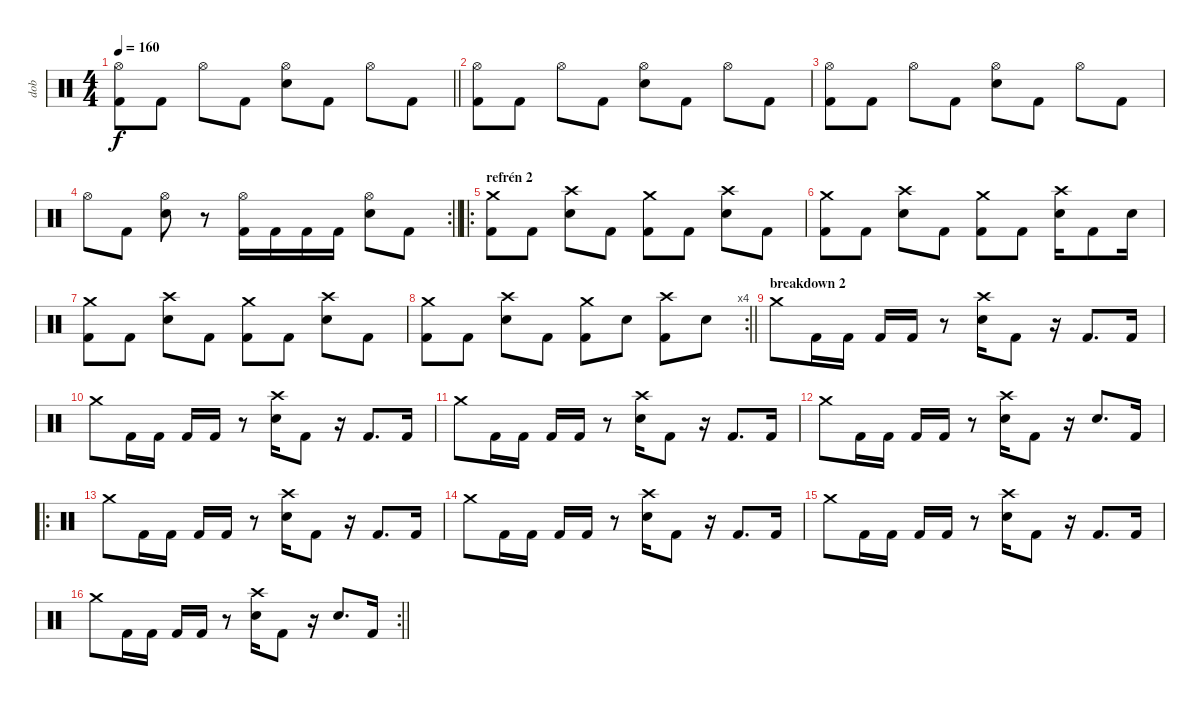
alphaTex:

\track ("dob" "dob") {instrument percussion}
\staff {score}
\articulation defaults
\ts (4 4)
\tempo 160
\clef neutral
\barLineRight lightlight
\ks c
("Hi-Hat (open)" "Kick (hit) 2").8{dy f} "Kick (hit) 2".8 "Hi-Hat (open)".8 "Kick (hit) 2".8 ("Hi-Hat (open)" "Snare (hit) 2").8 "Kick (hit) 2".8 "Hi-Hat (open)".8 "Kick (hit) 2".8 |
("Hi-Hat (open)" "Kick (hit) 2").8 "Kick (hit) 2".8 "Hi-Hat (open)".8 "Kick (hit) 2".8 ("Hi-Hat (open)" "Snare (hit) 2").8 "Kick (hit) 2".8 "Hi-Hat (open)".8 "Kick (hit) 2".8 |
("Hi-Hat (open)" "Kick (hit) 2").8 "Kick (hit) 2".8 "Hi-Hat (open)".8 "Kick (hit) 2".8 ("Hi-Hat (open)" "Snare (hit) 2").8 "Kick (hit) 2".8 "Hi-Hat (open)".8 "Kick (hit) 2".8 |
\rc 2
\barLineRight lightlight "Hi-Hat (open)".8 "Kick (hit) 2".8
("Hi-Hat (open)" "Snare (hit) 2").8 r.8 ("Hi-Hat (open)" "Kick (hit) 2").16 "Kick (hit) 2".16 "Kick (hit) 2".16 "Kick (hit) 2".16 ("Hi-Hat (open)" "Snare (hit) 2").8 "Kick (hit) 2".8 |
\ro
\section ("" "refrén 2")
("Crash medium (hit)" "Kick (hit) 2").8 "Kick (hit) 2".8 ("Crash high (hit)" "Snare (hit) 2").8 "Kick (hit) 2".8 ("Crash medium (hit)" "Kick (hit) 2").8 "Kick (hit) 2".8 ("Crash high (hit)" "Snare (hit) 2").8 "Kick (hit) 2".8 |
("Crash medium (hit)" "Kick (hit) 2").8 "Kick (hit) 2".8 ("Crash high (hit)" "Snare (hit) 2").8 "Kick (hit) 2".8 ("Crash medium (hit)" "Kick (hit) 2").8 "Kick (hit) 2".8 ("Crash high (hit)" "Snare (hit) 2").16 "Kick (hit) 2".8 "Snare (hit) 2".16 |
("Crash medium (hit)" "Kick (hit) 2").8 "Kick (hit) 2".8 ("Crash high (hit)" "Snare (hit) 2").8 "Kick (hit) 2".8 ("Crash medium (hit)" "Kick (hit) 2").8 "Kick (hit) 2".8 ("Crash high (hit)" "Snare (hit) 2").8 "Kick (hit) 2".8 |
\rc 4
\barLineRight lightlight
("Crash medium (hit)" "Kick (hit) 2").8 "Kick (hit) 2".8 ("Crash high (hit)" "Snare (hit) 2").8 "Kick (hit) 2".8 ("Crash medium (hit)" "Kick (hit) 2").8 "Snare (hit) 2".8 ("Crash high (hit)" "Kick (hit) 2").8 "Snare (hit) 2".8 |
\section ("" "breakdown 2")
"Crash medium (hit)".8 "Kick (hit) 2".16 "Kick (hit) 2".16 "Kick (hit) 2".16 "Kick (hit) 2".16 r.8 ("Crash high (hit)" "Snare (hit) 2").16 "Kick (hit) 2".8 r.16 "Kick (hit) 2".8{d} "Kick (hit) 2".16 |
"Crash medium (hit)".8 "Kick (hit) 2".16 "Kick (hit) 2".16 "Kick (hit) 2".16 "Kick (hit) 2".16 r.8 ("Crash high (hit)" "Snare (hit) 2").16 "Kick (hit) 2".8 r.16 "Kick (hit) 2".8{d} "Kick (hit) 2".16 |
"Crash medium (hit)".8 "Kick (hit) 2".16 "Kick (hit) 2".16 "Kick (hit) 2".16 "Kick (hit) 2".16 r.8 ("Crash high (hit)" "Snare (hit) 2").16 "Kick (hit) 2".8 r.16 "Kick (hit) 2".8{d} "Kick (hit) 2".16 |
"Crash medium (hit)".8 "Kick (hit) 2".16 "Kick (hit) 2".16 "Kick (hit) 2".16 "Kick (hit) 2".16 r.8 ("Crash high (hit)" "Snare (hit) 2").16 "Kick (hit) 2".8 r.16 "Snare (hit) 2".8{d} "Kick (hit) 2".16 |
\ro "Crash medium (hit)".8 "Kick (hit) 2".16 "Kick (hit) 2".16 "Kick (hit) 2".16 "Kick (hit) 2".16
r.8 ("Crash high (hit)" "Snare (hit) 2").16 "Kick (hit) 2".8 r.16 "Kick (hit) 2".8{d} "Kick (hit) 2".16 |
"Crash medium (hit)".8 "Kick (hit) 2".16 "Kick (hit) 2".16 "Kick (hit) 2".16 "Kick (hit) 2".16 r.8 ("Crash high (hit)" "Snare (hit) 2").16 "Kick (hit) 2".8 r.16 "Kick (hit) 2".8{d} "Kick (hit) 2".16 |
"Crash medium (hit)".8 "Kick (hit) 2".16 "Kick (hit) 2".16 "Kick (hit) 2".16 "Kick (hit) 2".16 r.8 ("Crash high (hit)" "Snare (hit) 2").16 "Kick (hit) 2".8 r.16 "Kick (hit) 2".8{d} "Kick (hit) 2".16 |
\rc 2
\barLineRight lightlight "Crash medium (hit)".8 "Kick (hit) 2".16 "Kick (hit) 2".16 "Kick (hit) 2".16 "Kick (hit) 2".16
r.8 ("Crash high (hit)" "Snare (hit) 2").16 "Kick (hit) 2".8 r.16 "Snare (hit) 2".8{d} "Kick (hit) 2".16
